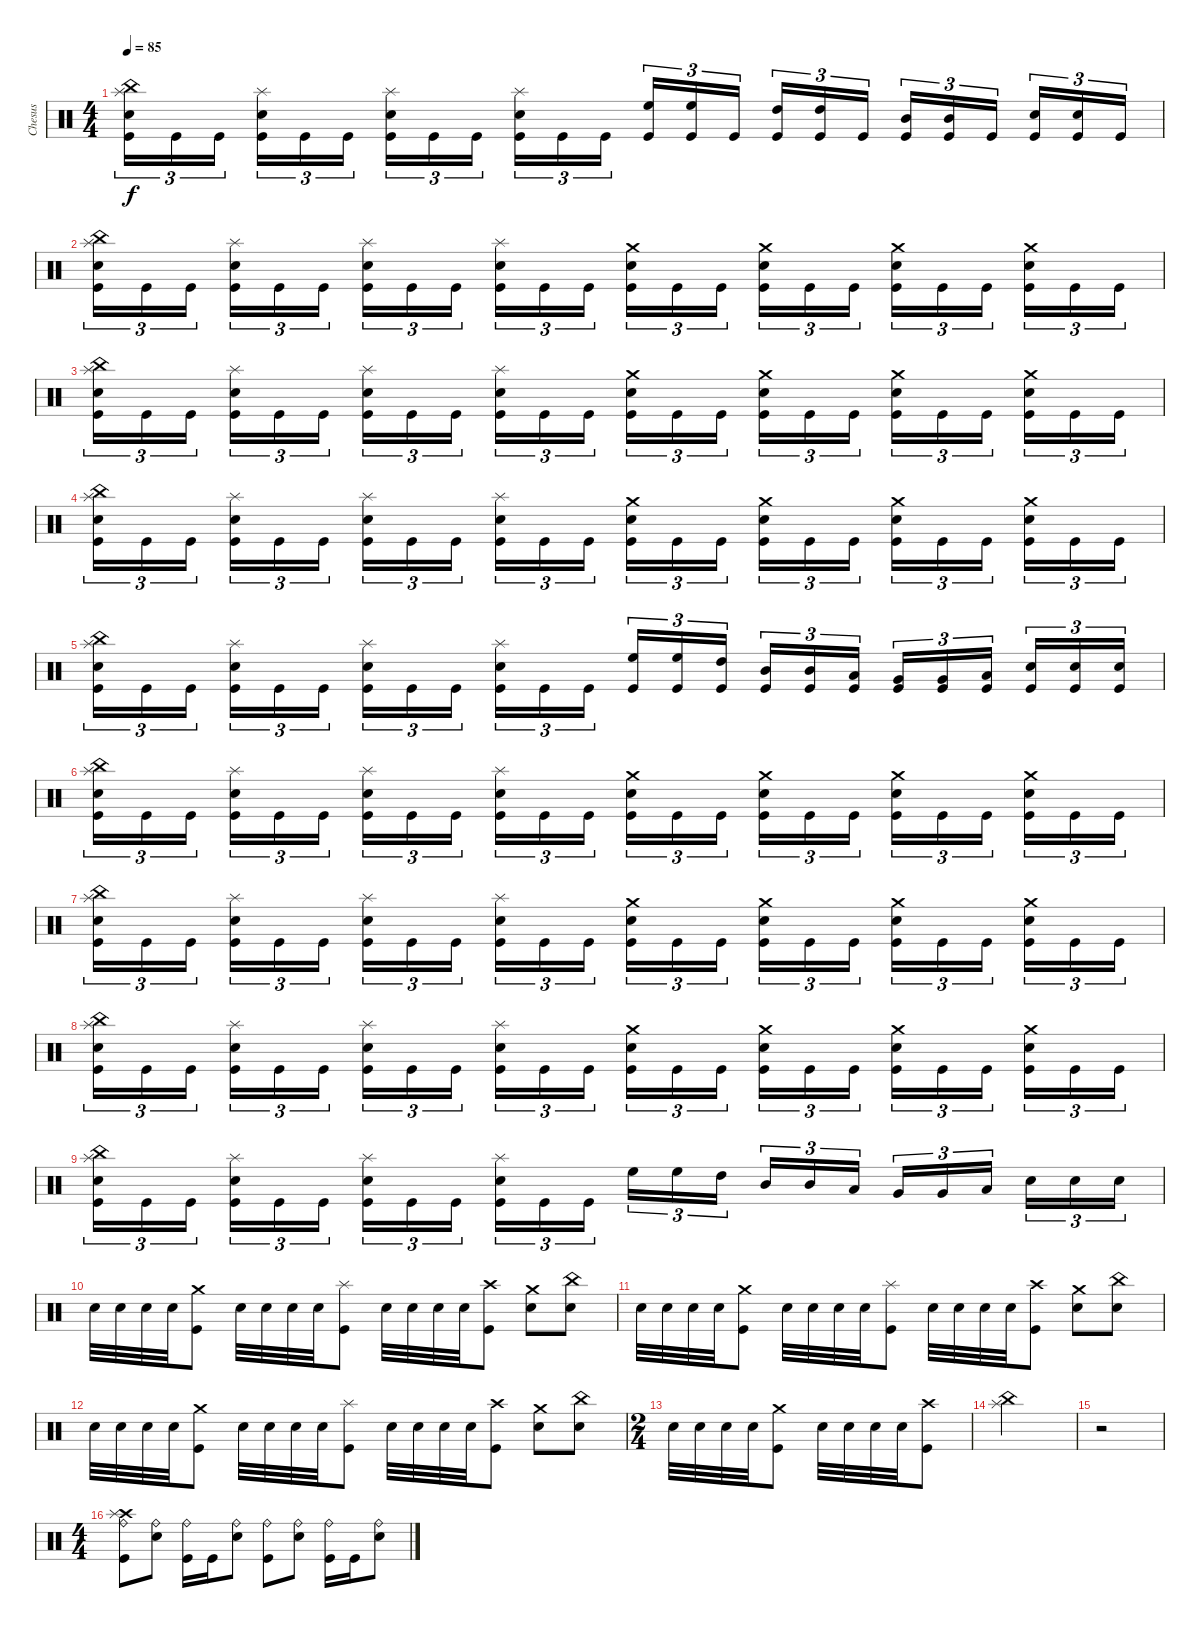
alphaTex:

\track ("Chesus" "Chesus") {instrument percussion}
\staff {score}
\articulation defaults
\ts (4 4)
\tempo 85
\clef neutral
\ks c
("Splash (hit)" "China (hit)" "Snare (hit) 2" "Kick (hit)").16{tu (3 2) dy f} "Kick (hit)".16{tu (3 2)} "Kick (hit)".16{tu (3 2)} ("Splash (hit)" "Snare (hit) 2" "Kick (hit)").16{tu (3 2)} "Kick (hit)".16{tu (3 2)} "Kick (hit)".16{tu (3 2)} ("Splash (hit)" "Snare (hit) 2" "Kick (hit)").16{tu (3 2)} "Kick (hit)".16{tu (3 2)} "Kick (hit)".16{tu (3 2)} ("Splash (hit)" "Snare (hit) 2" "Kick (hit)").16{tu (3 2)} "Kick (hit)".16{tu (3 2)} "Kick (hit)".16{tu (3 2)} ("High Floor Tom (hit)" "Kick (hit)").16{tu (3 2)} ("High Floor Tom (hit)" "Kick (hit)").16{tu (3 2)} "Kick (hit)".16{tu (3 2)} ("High Tom (hit)" "Kick (hit)").16{tu (3 2)} ("High Tom (hit)" "Kick (hit)").16{tu (3 2)} "Kick (hit)".16{tu (3 2)} ("Mid Tom (hit)" "Kick (hit)").16{tu (3 2)} ("Mid Tom (hit)" "Kick (hit)").16{tu (3 2)} "Kick (hit)".16{tu (3 2)} ("Snare (hit) 2" "Kick (hit)").16{tu (3 2)} ("Snare (hit) 2" "Kick (hit)").16{tu (3 2)} "Kick (hit)".16{tu (3 2)} |
("Splash (hit)" "China (hit)" "Snare (hit) 2" "Kick (hit)").16{tu (3 2)} "Kick (hit)".16{tu (3 2)} "Kick (hit)".16{tu (3 2)} ("Splash (hit)" "Snare (hit) 2" "Kick (hit)").16{tu (3 2)} "Kick (hit)".16{tu (3 2)} "Kick (hit)".16{tu (3 2)} ("Splash (hit)" "Snare (hit) 2" "Kick (hit)").16{tu (3 2)} "Kick (hit)".16{tu (3 2)} "Kick (hit)".16{tu (3 2)} ("Splash (hit)" "Snare (hit) 2" "Kick (hit)").16{tu (3 2)} "Kick (hit)".16{tu (3 2)} "Kick (hit)".16{tu (3 2)} ("Crash medium (hit)" "Snare (hit) 2" "Kick (hit)").16{tu (3 2)} "Kick (hit)".16{tu (3 2)} "Kick (hit)".16{tu (3 2)} ("Crash medium (hit)" "Snare (hit) 2" "Kick (hit)").16{tu (3 2)} "Kick (hit)".16{tu (3 2)} "Kick (hit)".16{tu (3 2)} ("Crash medium (hit)" "Snare (hit) 2" "Kick (hit)").16{tu (3 2)} "Kick (hit)".16{tu (3 2)} "Kick (hit)".16{tu (3 2)} ("Crash medium (hit)" "Snare (hit) 2" "Kick (hit)").16{tu (3 2)} "Kick (hit)".16{tu (3 2)} "Kick (hit)".16{tu (3 2)} |
("Splash (hit)" "China (hit)" "Snare (hit) 2" "Kick (hit)").16{tu (3 2)} "Kick (hit)".16{tu (3 2)} "Kick (hit)".16{tu (3 2)} ("Splash (hit)" "Snare (hit) 2" "Kick (hit)").16{tu (3 2)} "Kick (hit)".16{tu (3 2)} "Kick (hit)".16{tu (3 2)} ("Splash (hit)" "Snare (hit) 2" "Kick (hit)").16{tu (3 2)} "Kick (hit)".16{tu (3 2)} "Kick (hit)".16{tu (3 2)} ("Splash (hit)" "Snare (hit) 2" "Kick (hit)").16{tu (3 2)} "Kick (hit)".16{tu (3 2)} "Kick (hit)".16{tu (3 2)} ("Crash medium (hit)" "Snare (hit) 2" "Kick (hit)").16{tu (3 2)} "Kick (hit)".16{tu (3 2)} "Kick (hit)".16{tu (3 2)} ("Crash medium (hit)" "Snare (hit) 2" "Kick (hit)").16{tu (3 2)} "Kick (hit)".16{tu (3 2)} "Kick (hit)".16{tu (3 2)} ("Crash medium (hit)" "Snare (hit) 2" "Kick (hit)").16{tu (3 2)} "Kick (hit)".16{tu (3 2)} "Kick (hit)".16{tu (3 2)} ("Crash medium (hit)" "Snare (hit) 2" "Kick (hit)").16{tu (3 2)} "Kick (hit)".16{tu (3 2)} "Kick (hit)".16{tu (3 2)} |
("Splash (hit)" "China (hit)" "Snare (hit) 2" "Kick (hit)").16{tu (3 2)} "Kick (hit)".16{tu (3 2)} "Kick (hit)".16{tu (3 2)} ("Splash (hit)" "Snare (hit) 2" "Kick (hit)").16{tu (3 2)} "Kick (hit)".16{tu (3 2)} "Kick (hit)".16{tu (3 2)} ("Splash (hit)" "Snare (hit) 2" "Kick (hit)").16{tu (3 2)} "Kick (hit)".16{tu (3 2)} "Kick (hit)".16{tu (3 2)} ("Splash (hit)" "Snare (hit) 2" "Kick (hit)").16{tu (3 2)} "Kick (hit)".16{tu (3 2)} "Kick (hit)".16{tu (3 2)} ("Crash medium (hit)" "Snare (hit) 2" "Kick (hit)").16{tu (3 2)} "Kick (hit)".16{tu (3 2)} "Kick (hit)".16{tu (3 2)} ("Crash medium (hit)" "Snare (hit) 2" "Kick (hit)").16{tu (3 2)} "Kick (hit)".16{tu (3 2)} "Kick (hit)".16{tu (3 2)} ("Crash medium (hit)" "Snare (hit) 2" "Kick (hit)").16{tu (3 2)} "Kick (hit)".16{tu (3 2)} "Kick (hit)".16{tu (3 2)} ("Crash medium (hit)" "Snare (hit) 2" "Kick (hit)").16{tu (3 2)} "Kick (hit)".16{tu (3 2)} "Kick (hit)".16{tu (3 2)} |
("Splash (hit)" "China (hit)" "Snare (hit) 2" "Kick (hit)").16{tu (3 2)} "Kick (hit)".16{tu (3 2)} "Kick (hit)".16{tu (3 2)} ("Splash (hit)" "Snare (hit) 2" "Kick (hit)").16{tu (3 2)} "Kick (hit)".16{tu (3 2)} "Kick (hit)".16{tu (3 2)} ("Splash (hit)" "Snare (hit) 2" "Kick (hit)").16{tu (3 2)} "Kick (hit)".16{tu (3 2)} "Kick (hit)".16{tu (3 2)} ("Splash (hit)" "Snare (hit) 2" "Kick (hit)").16{tu (3 2)} "Kick (hit)".16{tu (3 2)} "Kick (hit)".16{tu (3 2)} ("High Floor Tom (hit)" "Kick (hit)").16{tu (3 2)} ("High Floor Tom (hit)" "Kick (hit)").16{tu (3 2)} ("High Tom (hit)" "Kick (hit)").16{tu (3 2)} ("Mid Tom (hit)" "Kick (hit)").16{tu (3 2)} ("Mid Tom (hit)" "Kick (hit)").16{tu (3 2)} ("Low Tom (hit)" "Kick (hit)").16{tu (3 2)} ("Very Low Tom (hit)" "Kick (hit)").16{tu (3 2)} ("Very Low Tom (hit)" "Kick (hit)").16{tu (3 2)} ("Low Floor Tom (hit)" "Kick (hit)").16{tu (3 2)} ("Snare (hit) 2" "Kick (hit)").16{tu (3 2)} ("Snare (hit) 2" "Kick (hit)").16{tu (3 2)} ("Snare (hit) 2" "Kick (hit)").16{tu (3 2)} |
("Splash (hit)" "China (hit)" "Snare (hit) 2" "Kick (hit)").16{tu (3 2)} "Kick (hit)".16{tu (3 2)} "Kick (hit)".16{tu (3 2)} ("Splash (hit)" "Snare (hit) 2" "Kick (hit)").16{tu (3 2)} "Kick (hit)".16{tu (3 2)} "Kick (hit)".16{tu (3 2)} ("Splash (hit)" "Snare (hit) 2" "Kick (hit)").16{tu (3 2)} "Kick (hit)".16{tu (3 2)} "Kick (hit)".16{tu (3 2)} ("Splash (hit)" "Snare (hit) 2" "Kick (hit)").16{tu (3 2)} "Kick (hit)".16{tu (3 2)} "Kick (hit)".16{tu (3 2)} ("Crash medium (hit)" "Snare (hit) 2" "Kick (hit)").16{tu (3 2)} "Kick (hit)".16{tu (3 2)} "Kick (hit)".16{tu (3 2)} ("Crash medium (hit)" "Snare (hit) 2" "Kick (hit)").16{tu (3 2)} "Kick (hit)".16{tu (3 2)} "Kick (hit)".16{tu (3 2)} ("Crash medium (hit)" "Snare (hit) 2" "Kick (hit)").16{tu (3 2)} "Kick (hit)".16{tu (3 2)} "Kick (hit)".16{tu (3 2)} ("Crash medium (hit)" "Snare (hit) 2" "Kick (hit)").16{tu (3 2)} "Kick (hit)".16{tu (3 2)} "Kick (hit)".16{tu (3 2)} |
("Splash (hit)" "China (hit)" "Snare (hit) 2" "Kick (hit)").16{tu (3 2)} "Kick (hit)".16{tu (3 2)} "Kick (hit)".16{tu (3 2)} ("Splash (hit)" "Snare (hit) 2" "Kick (hit)").16{tu (3 2)} "Kick (hit)".16{tu (3 2)} "Kick (hit)".16{tu (3 2)} ("Splash (hit)" "Snare (hit) 2" "Kick (hit)").16{tu (3 2)} "Kick (hit)".16{tu (3 2)} "Kick (hit)".16{tu (3 2)} ("Splash (hit)" "Snare (hit) 2" "Kick (hit)").16{tu (3 2)} "Kick (hit)".16{tu (3 2)} "Kick (hit)".16{tu (3 2)} ("Crash medium (hit)" "Snare (hit) 2" "Kick (hit)").16{tu (3 2)} "Kick (hit)".16{tu (3 2)} "Kick (hit)".16{tu (3 2)} ("Crash medium (hit)" "Snare (hit) 2" "Kick (hit)").16{tu (3 2)} "Kick (hit)".16{tu (3 2)} "Kick (hit)".16{tu (3 2)} ("Crash medium (hit)" "Snare (hit) 2" "Kick (hit)").16{tu (3 2)} "Kick (hit)".16{tu (3 2)} "Kick (hit)".16{tu (3 2)} ("Crash medium (hit)" "Snare (hit) 2" "Kick (hit)").16{tu (3 2)} "Kick (hit)".16{tu (3 2)} "Kick (hit)".16{tu (3 2)} |
("Splash (hit)" "China (hit)" "Snare (hit) 2" "Kick (hit)").16{tu (3 2)} "Kick (hit)".16{tu (3 2)} "Kick (hit)".16{tu (3 2)} ("Splash (hit)" "Snare (hit) 2" "Kick (hit)").16{tu (3 2)} "Kick (hit)".16{tu (3 2)} "Kick (hit)".16{tu (3 2)} ("Splash (hit)" "Snare (hit) 2" "Kick (hit)").16{tu (3 2)} "Kick (hit)".16{tu (3 2)} "Kick (hit)".16{tu (3 2)} ("Splash (hit)" "Snare (hit) 2" "Kick (hit)").16{tu (3 2)} "Kick (hit)".16{tu (3 2)} "Kick (hit)".16{tu (3 2)} ("Crash medium (hit)" "Snare (hit) 2" "Kick (hit)").16{tu (3 2)} "Kick (hit)".16{tu (3 2)} "Kick (hit)".16{tu (3 2)} ("Crash medium (hit)" "Snare (hit) 2" "Kick (hit)").16{tu (3 2)} "Kick (hit)".16{tu (3 2)} "Kick (hit)".16{tu (3 2)} ("Crash medium (hit)" "Snare (hit) 2" "Kick (hit)").16{tu (3 2)} "Kick (hit)".16{tu (3 2)} "Kick (hit)".16{tu (3 2)} ("Crash medium (hit)" "Snare (hit) 2" "Kick (hit)").16{tu (3 2)} "Kick (hit)".16{tu (3 2)} "Kick (hit)".16{tu (3 2)} |
("Splash (hit)" "China (hit)" "Snare (hit) 2" "Kick (hit)").16{tu (3 2)} "Kick (hit)".16{tu (3 2)} "Kick (hit)".16{tu (3 2)} ("Splash (hit)" "Snare (hit) 2" "Kick (hit)").16{tu (3 2)} "Kick (hit)".16{tu (3 2)} "Kick (hit)".16{tu (3 2)} ("Splash (hit)" "Snare (hit) 2" "Kick (hit)").16{tu (3 2)} "Kick (hit)".16{tu (3 2)} "Kick (hit)".16{tu (3 2)} ("Splash (hit)" "Snare (hit) 2" "Kick (hit)").16{tu (3 2)} "Kick (hit)".16{tu (3 2)} "Kick (hit)".16{tu (3 2)} "High Floor Tom (hit)".16{tu (3 2)} "High Floor Tom (hit)".16{tu (3 2)} "High Tom (hit)".16{tu (3 2)} "Mid Tom (hit)".16{tu (3 2)} "Mid Tom (hit)".16{tu (3 2)} "Low Tom (hit)".16{tu (3 2)} "Very Low Tom (hit)".16{tu (3 2)} "Very Low Tom (hit)".16{tu (3 2)} "Low Floor Tom (hit)".16{tu (3 2)} "Snare (hit) 2".16{tu (3 2)} "Snare (hit) 2".16{tu (3 2)} "Snare (hit) 2".16{tu (3 2)} |
"Snare (hit) 2".32 "Snare (hit) 2".32 "Snare (hit) 2".32 "Snare (hit) 2".32 ("Crash medium (hit)" "Kick (hit)").8 "Snare (hit) 2".32 "Snare (hit) 2".32 "Snare (hit) 2".32 "Snare (hit) 2".32 ("Splash (hit)" "Kick (hit)").8 "Snare (hit) 2".32 "Snare (hit) 2".32 "Snare (hit) 2".32 "Snare (hit) 2".32 ("Crash high (hit)" "Kick (hit)").8 ("Crash medium (hit)" "Snare (hit) 2").8 ("China (hit)" "Snare (hit) 2").8 |
"Snare (hit) 2".32 "Snare (hit) 2".32 "Snare (hit) 2".32 "Snare (hit) 2".32 ("Crash medium (hit)" "Kick (hit)").8 "Snare (hit) 2".32 "Snare (hit) 2".32 "Snare (hit) 2".32 "Snare (hit) 2".32 ("Splash (hit)" "Kick (hit)").8 "Snare (hit) 2".32 "Snare (hit) 2".32 "Snare (hit) 2".32 "Snare (hit) 2".32 ("Crash high (hit)" "Kick (hit)").8 ("Crash medium (hit)" "Snare (hit) 2").8 ("China (hit)" "Snare (hit) 2").8 |
"Snare (hit) 2".32 "Snare (hit) 2".32 "Snare (hit) 2".32 "Snare (hit) 2".32 ("Crash medium (hit)" "Kick (hit)").8 "Snare (hit) 2".32 "Snare (hit) 2".32 "Snare (hit) 2".32 "Snare (hit) 2".32 ("Splash (hit)" "Kick (hit)").8 "Snare (hit) 2".32 "Snare (hit) 2".32 "Snare (hit) 2".32 "Snare (hit) 2".32 ("Crash high (hit)" "Kick (hit)").8 ("Crash medium (hit)" "Snare (hit) 2").8 ("China (hit)" "Snare (hit) 2").8 |
\ts (2 4)
"Snare (hit) 2".32 "Snare (hit) 2".32 "Snare (hit) 2".32 "Snare (hit) 2".32 ("Crash medium (hit)" "Kick (hit)").8 "Snare (hit) 2".32 "Snare (hit) 2".32 "Snare (hit) 2".32 "Snare (hit) 2".32 ("Crash high (hit)" "Kick (hit)").8 |
("China (hit)" "Splash (hit)").2 |
r.2 |
\ts (4 4)
("Crash high (hit)" "Splash (hit)" "Ride (bell)" "Kick (hit)").8 ("Ride (bell)" "Snare (hit) 2").8 ("Ride (bell)" "Kick (hit)").16 "Kick (hit)".16 ("Ride (bell)" "Snare (hit) 2").8 ("Ride (bell)" "Kick (hit)").8 ("Ride (bell)" "Snare (hit) 2").8 ("Ride (bell)" "Kick (hit)").16 "Kick (hit)".16 ("Ride (bell)" "Snare (hit) 2").8
